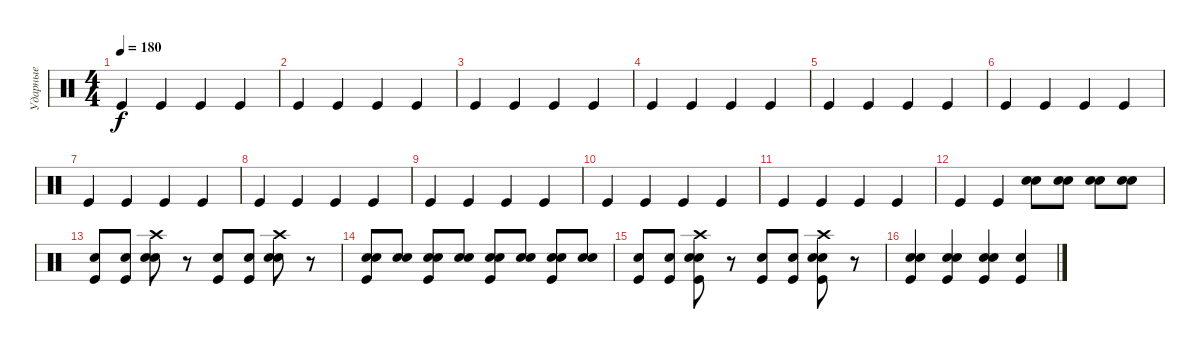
\track ("Ударные" "Ударные") {instrument percussion}
\staff {score}
\articulation defaults
\ts (4 4)
\tempo 180
\clef neutral
\ks c "Kick (hit)".4{dy f} "Kick (hit)".4 "Kick (hit)".4 "Kick (hit)".4
|
"Kick (hit)".4 "Kick (hit)".4 "Kick (hit)".4 "Kick (hit)".4 |
"Kick (hit)".4 "Kick (hit)".4 "Kick (hit)".4 "Kick (hit)".4 |
"Kick (hit)".4 "Kick (hit)".4 "Kick (hit)".4 "Kick (hit)".4 |
"Kick (hit)".4 "Kick (hit)".4 "Kick (hit)".4 "Kick (hit)".4 |
"Kick (hit)".4 "Kick (hit)".4 "Kick (hit)".4 "Kick (hit)".4 |
"Kick (hit)".4 "Kick (hit)".4 "Kick (hit)".4 "Kick (hit)".4 |
"Kick (hit)".4 "Kick (hit)".4 "Kick (hit)".4 "Kick (hit)".4 |
"Kick (hit)".4 "Kick (hit)".4 "Kick (hit)".4 "Kick (hit)".4 |
"Kick (hit)".4 "Kick (hit)".4 "Kick (hit)".4 "Kick (hit)".4 |
"Kick (hit)".4 "Kick (hit)".4 "Kick (hit)".4 "Kick (hit)".4 |
"Kick (hit)".4 "Kick (hit)".4 ("Electric Snare (hit)" "Electric Snare (hit)").8 ("Electric Snare (hit)" "Electric Snare (hit)").8 ("Electric Snare (hit)" "Electric Snare (hit)").8 ("Electric Snare (hit)" "Electric Snare (hit)").8 |
("Kick (hit)" "Electric Snare (hit)").8 ("Kick (hit)" "Electric Snare (hit)").8 ("Crash high (hit)" "Electric Snare (hit)" "Electric Snare (hit)").8 r.8 ("Kick (hit)" "Electric Snare (hit)").8 ("Kick (hit)" "Electric Snare (hit)").8 ("Crash high (hit)" "Electric Snare (hit)" "Electric Snare (hit)").8 r.8 |
("Kick (hit)" "Snare (hit) 2" "Electric Snare (hit)").8 ("Snare (hit) 2" "Electric Snare (hit)").8 ("Kick (hit)" "Snare (hit) 2" "Electric Snare (hit)").8 ("Snare (hit) 2" "Electric Snare (hit)").8 ("Kick (hit)" "Electric Snare (hit)" "Electric Snare (hit)").8 ("Electric Snare (hit)" "Electric Snare (hit)").8 ("Kick (hit)" "Electric Snare (hit)" "Electric Snare (hit)").8 ("Electric Snare (hit)" "Electric Snare (hit)").8 |
("Kick (hit)" "Electric Snare (hit)").8 ("Kick (hit)" "Electric Snare (hit)").8 ("Kick (hit)" "Crash high (hit)" "Electric Snare (hit)" "Electric Snare (hit)").8 r.8 ("Kick (hit)" "Electric Snare (hit)").8 ("Kick (hit)" "Electric Snare (hit)").8 ("Kick (hit)" "Crash high (hit)" "Electric Snare (hit)" "Electric Snare (hit)").8 r.8 |
("Electric Snare (hit)" "Electric Snare (hit)" "Kick (hit)").4 ("Electric Snare (hit)" "Electric Snare (hit)" "Kick (hit)").4 ("Electric Snare (hit)" "Kick (hit)" "Electric Snare (hit)").4 ("Electric Snare (hit)" "Kick (hit)").4
